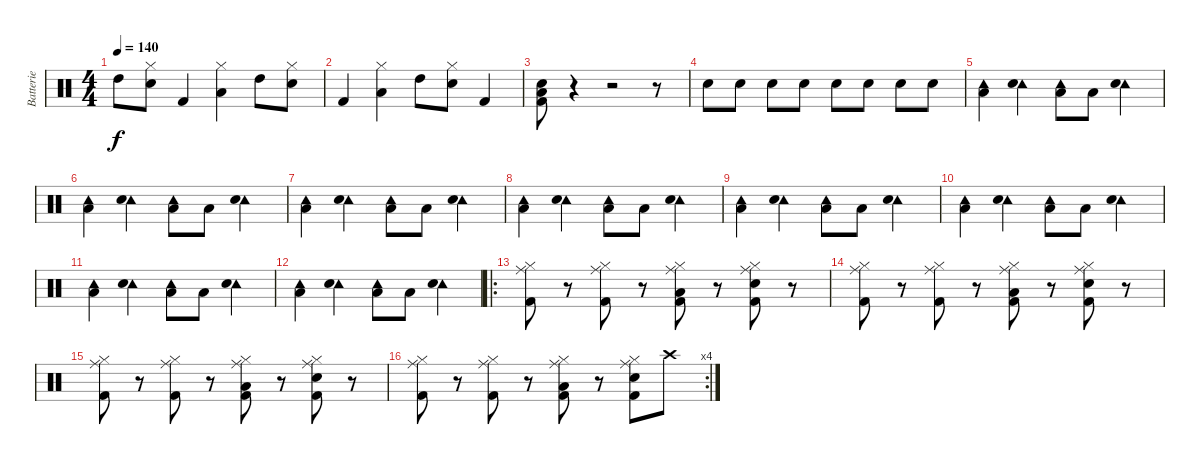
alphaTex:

\track ("Batterie" "Batterie") {instrument percussion}
\staff {score}
\articulation defaults
\ts (4 4)
\tempo 140
\clef neutral
\ks c "High Tom (hit)".8{dy f}
("Hi-Hat (closed)" "Snare (hit) 2").8 "Kick (hit) 2".4 ("Hi-Hat (closed)" "Low Floor Tom (hit)").4 "High Tom (hit)".8 ("Hi-Hat (closed)" "Snare (hit) 2").8 |
"Kick (hit) 2".4 ("Hi-Hat (closed)" "Low Floor Tom (hit)").4 "High Tom (hit)".8 ("Hi-Hat (closed)" "Snare (hit) 2").8 "Kick (hit) 2".4 |
("Kick (hit) 2" "Low Floor Tom (hit)" "Snare (hit) 2").8 r.4 r.2 r.8 |
"Snare (hit) 2".8 "Snare (hit) 2".8 "Snare (hit) 2".8 "Snare (hit) 2".8 "Snare (hit) 2".8 "Snare (hit) 2".8 "Snare (hit) 2".8 "Snare (hit) 2".8 |
("Tambourine (hit)" "Low Floor Tom (hit)").4 ("Tambourine (hit)" "Electric Snare (hit)").4 ("Tambourine (hit)" "Low Floor Tom (hit)").8 "Low Floor Tom (hit)".8 ("Tambourine (hit)" "Electric Snare (hit)").4 |
("Tambourine (hit)" "Low Floor Tom (hit)").4 ("Tambourine (hit)" "Electric Snare (hit)").4 ("Tambourine (hit)" "Low Floor Tom (hit)").8 "Low Floor Tom (hit)".8 ("Tambourine (hit)" "Electric Snare (hit)").4 |
("Tambourine (hit)" "Low Floor Tom (hit)").4 ("Tambourine (hit)" "Electric Snare (hit)").4 ("Tambourine (hit)" "Low Floor Tom (hit)").8 "Low Floor Tom (hit)".8 ("Tambourine (hit)" "Electric Snare (hit)").4 |
("Tambourine (hit)" "Low Floor Tom (hit)").4 ("Tambourine (hit)" "Electric Snare (hit)").4 ("Tambourine (hit)" "Low Floor Tom (hit)").8 "Low Floor Tom (hit)".8 ("Tambourine (hit)" "Electric Snare (hit)").4 |
("Tambourine (hit)" "Low Floor Tom (hit)").4 ("Tambourine (hit)" "Electric Snare (hit)").4 ("Tambourine (hit)" "Low Floor Tom (hit)").8 "Low Floor Tom (hit)".8 ("Tambourine (hit)" "Electric Snare (hit)").4 |
("Tambourine (hit)" "Low Floor Tom (hit)").4 ("Tambourine (hit)" "Electric Snare (hit)").4 ("Tambourine (hit)" "Low Floor Tom (hit)").8 "Low Floor Tom (hit)".8 ("Tambourine (hit)" "Electric Snare (hit)").4 |
("Tambourine (hit)" "Low Floor Tom (hit)").4 ("Tambourine (hit)" "Electric Snare (hit)").4 ("Tambourine (hit)" "Low Floor Tom (hit)").8 "Low Floor Tom (hit)".8 ("Tambourine (hit)" "Electric Snare (hit)").4 |
("Tambourine (hit)" "Low Floor Tom (hit)").4 ("Tambourine (hit)" "Electric Snare (hit)").4 ("Tambourine (hit)" "Low Floor Tom (hit)").8 "Low Floor Tom (hit)".8 ("Tambourine (hit)" "Electric Snare (hit)").4 |
\ro
("Ride (middle)" "Hi-Hat (closed)" "Kick (hit) 2").8 r.8 ("Ride (middle)" "Hi-Hat (closed)" "Kick (hit) 2").8 r.8 ("Ride (middle)" "Hi-Hat (closed)" "Kick (hit) 2" "Low Floor Tom (hit)").8 r.8 ("Ride (middle)" "Hi-Hat (closed)" "Snare (hit) 2" "Kick (hit) 2").8 r.8 |
("Ride (middle)" "Hi-Hat (closed)" "Kick (hit) 2").8 r.8 ("Ride (middle)" "Hi-Hat (closed)" "Kick (hit) 2").8 r.8 ("Ride (middle)" "Hi-Hat (closed)" "Kick (hit) 2" "Low Floor Tom (hit)").8 r.8 ("Ride (middle)" "Hi-Hat (closed)" "Snare (hit) 2" "Kick (hit) 2").8 r.8 |
("Ride (middle)" "Hi-Hat (closed)" "Kick (hit) 2").8 r.8 ("Ride (middle)" "Hi-Hat (closed)" "Kick (hit) 2").8 r.8 ("Ride (middle)" "Hi-Hat (closed)" "Kick (hit) 2" "Low Floor Tom (hit)").8 r.8 ("Ride (middle)" "Hi-Hat (closed)" "Snare (hit) 2" "Kick (hit) 2").8 r.8 |
\rc 4
("Ride (middle)" "Hi-Hat (closed)" "Kick (hit) 2").8 r.8 ("Ride (middle)" "Hi-Hat (closed)" "Kick (hit) 2").8 r.8 ("Ride (middle)" "Hi-Hat (closed)" "Kick (hit) 2" "Low Floor Tom (hit)").8 r.8 ("Ride (middle)" "Hi-Hat (closed)" "Snare (hit) 2" "Kick (hit) 2").8 "Crash high (hit)".8
